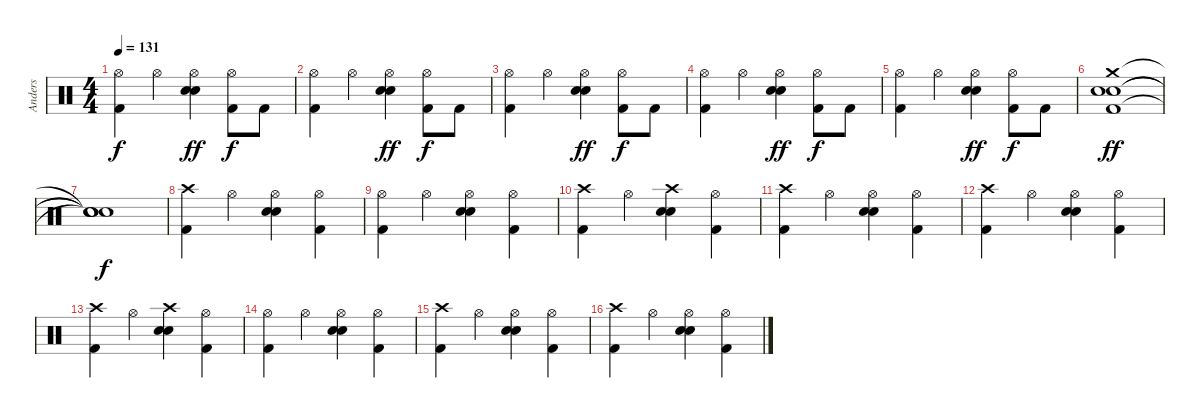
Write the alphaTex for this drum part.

\track ("Anders" "Anders") {instrument percussion}
\staff {score}
\articulation defaults
\ts (4 4)
\tempo 131
\clef neutral
\ks c
("Hi-Hat (open)" "Kick (hit) 2").4{dy f} "Hi-Hat (open)".4 ("Hi-Hat (open)" "Electric Snare (hit)" "Electric Snare (hit)").4{dy ff} ("Hi-Hat (open)" "Kick (hit) 2").8{dy f} "Kick (hit) 2".8 |
("Hi-Hat (open)" "Kick (hit) 2").4 "Hi-Hat (open)".4 ("Hi-Hat (open)" "Electric Snare (hit)" "Electric Snare (hit)").4{dy ff} ("Hi-Hat (open)" "Kick (hit) 2").8{dy f} "Kick (hit) 2".8 |
("Hi-Hat (open)" "Kick (hit) 2").4 "Hi-Hat (open)".4 ("Hi-Hat (open)" "Electric Snare (hit)" "Electric Snare (hit)").4{dy ff} ("Hi-Hat (open)" "Kick (hit) 2").8{dy f} "Kick (hit) 2".8 |
("Hi-Hat (open)" "Kick (hit) 2").4 "Hi-Hat (open)".4 ("Hi-Hat (open)" "Electric Snare (hit)" "Electric Snare (hit)").4{dy ff} ("Hi-Hat (open)" "Kick (hit) 2").8{dy f} "Kick (hit) 2".8 |
("Hi-Hat (open)" "Kick (hit) 2").4 "Hi-Hat (open)".4 ("Hi-Hat (open)" "Electric Snare (hit)" "Electric Snare (hit)").4{dy ff} ("Hi-Hat (open)" "Kick (hit) 2").8{dy f} "Kick (hit) 2".8 |
("Crash medium (hit)" "Electric Snare (hit)" "Electric Snare (hit)" "Kick (hit) 2").1{dy ff} |
("Snare (hit)"{t} "Snare (hit)"{t} "Snare (hit)"{t} "Snare (hit)"{t}).1{dy f} |
("Crash high (hit)" "Kick (hit) 2").4 "Hi-Hat (open)".4 ("Hi-Hat (open)" "Electric Snare (hit)" "Electric Snare (hit)").4 ("Hi-Hat (open)" "Kick (hit) 2").4 |
("Hi-Hat (open)" "Kick (hit) 2").4 "Hi-Hat (open)".4 ("Hi-Hat (open)" "Electric Snare (hit)" "Electric Snare (hit)").4 ("Hi-Hat (open)" "Kick (hit) 2").4 |
("Crash high (hit)" "Kick (hit) 2").4 "Hi-Hat (open)".4 ("Crash high (hit)" "Electric Snare (hit)" "Electric Snare (hit)").4 ("Hi-Hat (open)" "Kick (hit) 2").4 |
("Crash high (hit)" "Kick (hit) 2").4 "Hi-Hat (open)".4 ("Hi-Hat (open)" "Electric Snare (hit)" "Electric Snare (hit)").4 ("Hi-Hat (open)" "Kick (hit) 2").4 |
("Crash high (hit)" "Kick (hit) 2").4 "Hi-Hat (open)".4 ("Hi-Hat (open)" "Electric Snare (hit)" "Electric Snare (hit)").4 ("Hi-Hat (open)" "Kick (hit) 2").4 |
("Crash high (hit)" "Kick (hit) 2").4 "Hi-Hat (open)".4 ("Crash high (hit)" "Electric Snare (hit)" "Electric Snare (hit)").4 ("Hi-Hat (open)" "Kick (hit) 2").4 |
("Hi-Hat (open)" "Kick (hit) 2").4 "Hi-Hat (open)".4 ("Hi-Hat (open)" "Electric Snare (hit)" "Electric Snare (hit)").4 ("Hi-Hat (open)" "Kick (hit) 2").4 |
("Crash high (hit)" "Kick (hit) 2").4 "Hi-Hat (open)".4 ("Hi-Hat (open)" "Electric Snare (hit)" "Electric Snare (hit)").4 ("Hi-Hat (open)" "Kick (hit) 2").4 |
("Crash high (hit)" "Kick (hit) 2").4 "Hi-Hat (open)".4 ("Hi-Hat (open)" "Electric Snare (hit)" "Electric Snare (hit)").4 ("Hi-Hat (open)" "Kick (hit) 2").4
